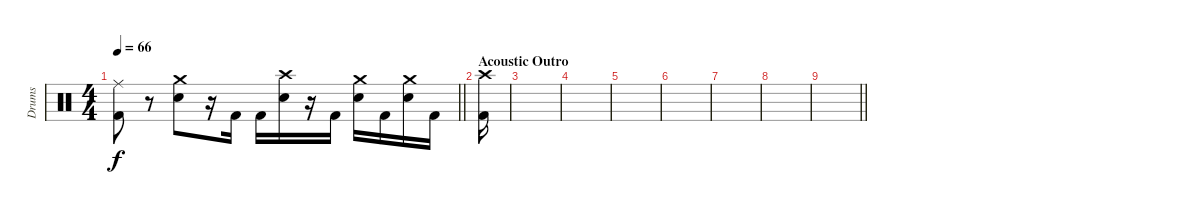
\track ("Drums" "Drums") {instrument percussion}
\staff {score}
\articulation defaults
\ts (4 4)
\tempo 66
\clef neutral
\barLineRight lightlight
\ks c
("Ride (middle)" "Kick (hit) 2").8{dy f} r.8 ("Crash medium (hit)" "Snare (hit) 2").8 r.16 "Kick (hit) 2".16 "Kick (hit) 2".16 ("Crash high (hit)" "Snare (hit) 2").16 r.16 "Kick (hit) 2".16 ("Crash medium (hit)" "Snare (hit) 2").16 "Kick (hit) 2".16 ("Crash medium (hit)" "Snare (hit) 2").16 "Kick (hit) 2".16 |
\section ("" "Acoustic Outro")
("Crash high (hit)" "Kick (hit) 2").16 |
|
|
|
|
|
|
\barLineRight lightlight
